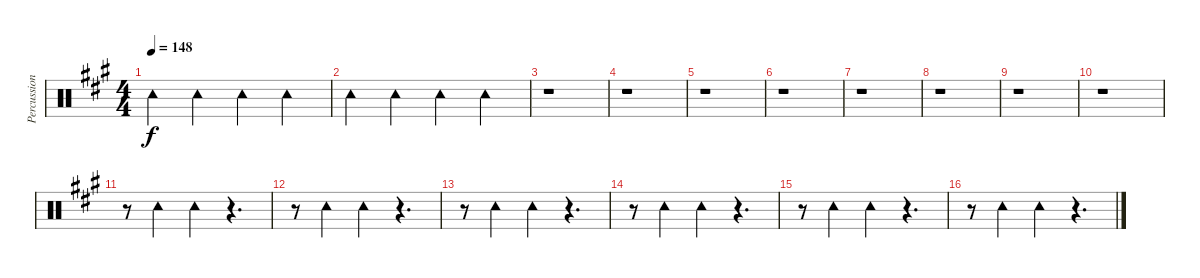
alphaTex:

\track ("Percussion" "Percussion") {instrument percussion}
\staff {score}
\articulation defaults
\ts (4 4)
\tempo 148
\clef neutral
\ks a "Tambourine (hit)".4{dy f} "Tambourine (hit)".4 "Tambourine (hit)".4 "Tambourine (hit)".4
|
"Tambourine (hit)".4 "Tambourine (hit)".4 "Tambourine (hit)".4 "Tambourine (hit)".4 |
r.1 |
r.1 |
r.1 |
r.1 |
r.1 |
r.1 |
r.1 |
r.1 |
r.8 "Tambourine (hit)".4 "Tambourine (hit)".4 r.4{d} |
r.8 "Tambourine (hit)".4 "Tambourine (hit)".4 r.4{d} |
r.8 "Tambourine (hit)".4 "Tambourine (hit)".4 r.4{d} |
r.8 "Tambourine (hit)".4 "Tambourine (hit)".4 r.4{d} |
r.8 "Tambourine (hit)".4 "Tambourine (hit)".4 r.4{d} |
r.8 "Tambourine (hit)".4 "Tambourine (hit)".4 r.4{d}
